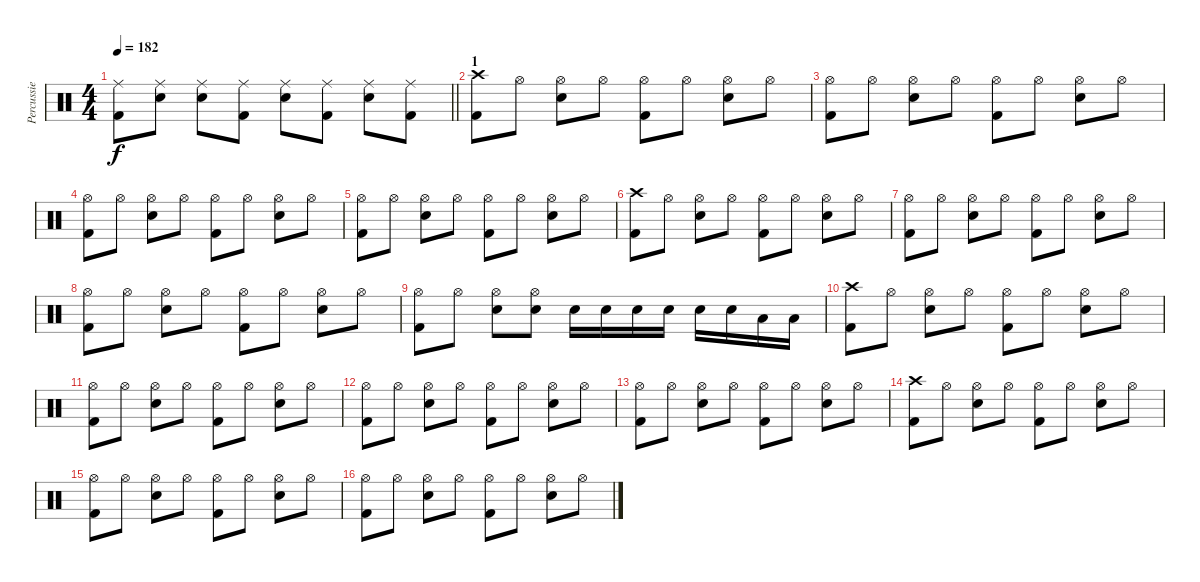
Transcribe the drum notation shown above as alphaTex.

\track ("Percussie" "Percussie") {instrument percussion}
\staff {score}
\articulation defaults
\ts (4 4)
\tempo 182
\clef neutral
\barLineRight lightlight
\ks c
("Ride (middle)" "Kick (hit) 2").8{dy f} ("Ride (middle)" "Snare (hit) 2").8 ("Ride (middle)" "Snare (hit) 2").8 ("Ride (middle)" "Kick (hit) 2").8 ("Ride (middle)" "Snare (hit) 2").8 ("Ride (middle)" "Kick (hit) 2").8 ("Ride (middle)" "Snare (hit) 2").8 ("Ride (middle)" "Kick (hit) 2").8 |
\section ("" "1")
("Crash high (hit)" "Kick (hit) 2").8 "Hi-Hat (open)".8 ("Hi-Hat (open)" "Snare (hit) 2").8 "Hi-Hat (open)".8 ("Hi-Hat (open)" "Kick (hit) 2").8 "Hi-Hat (open)".8 ("Hi-Hat (open)" "Snare (hit) 2").8 "Hi-Hat (open)".8 |
("Hi-Hat (open)" "Kick (hit) 2").8 "Hi-Hat (open)".8 ("Hi-Hat (open)" "Snare (hit) 2").8 "Hi-Hat (open)".8 ("Hi-Hat (open)" "Kick (hit) 2").8 "Hi-Hat (open)".8 ("Hi-Hat (open)" "Snare (hit) 2").8 "Hi-Hat (open)".8 |
("Hi-Hat (open)" "Kick (hit) 2").8 "Hi-Hat (open)".8 ("Hi-Hat (open)" "Snare (hit) 2").8 "Hi-Hat (open)".8 ("Hi-Hat (open)" "Kick (hit) 2").8 "Hi-Hat (open)".8 ("Hi-Hat (open)" "Snare (hit) 2").8 "Hi-Hat (open)".8 |
("Hi-Hat (open)" "Kick (hit) 2").8 "Hi-Hat (open)".8 ("Hi-Hat (open)" "Snare (hit) 2").8 "Hi-Hat (open)".8 ("Hi-Hat (open)" "Kick (hit) 2").8 "Hi-Hat (open)".8 ("Hi-Hat (open)" "Snare (hit) 2").8 "Hi-Hat (open)".8 |
("Crash high (hit)" "Kick (hit) 2").8 "Hi-Hat (open)".8 ("Hi-Hat (open)" "Snare (hit) 2").8 "Hi-Hat (open)".8 ("Hi-Hat (open)" "Kick (hit) 2").8 "Hi-Hat (open)".8 ("Hi-Hat (open)" "Snare (hit) 2").8 "Hi-Hat (open)".8 |
("Hi-Hat (open)" "Kick (hit) 2").8 "Hi-Hat (open)".8 ("Hi-Hat (open)" "Snare (hit) 2").8 "Hi-Hat (open)".8 ("Hi-Hat (open)" "Kick (hit) 2").8 "Hi-Hat (open)".8 ("Hi-Hat (open)" "Snare (hit) 2").8 "Hi-Hat (open)".8 |
("Hi-Hat (open)" "Kick (hit) 2").8 "Hi-Hat (open)".8 ("Hi-Hat (open)" "Snare (hit) 2").8 "Hi-Hat (open)".8 ("Hi-Hat (open)" "Kick (hit) 2").8 "Hi-Hat (open)".8 ("Hi-Hat (open)" "Snare (hit) 2").8 "Hi-Hat (open)".8 |
("Hi-Hat (open)" "Kick (hit) 2").8 "Hi-Hat (open)".8 ("Hi-Hat (open)" "Snare (hit) 2").8 ("Hi-Hat (open)" "Snare (hit) 2").8 "Snare (hit) 2".16 "Snare (hit) 2".16 "Snare (hit) 2".16 "Snare (hit) 2".16 "Snare (hit) 2".16 "Snare (hit) 2".16 "Low Tom (hit)".16 "Low Tom (hit)".16 |
("Crash high (hit)" "Kick (hit) 2").8 "Hi-Hat (open)".8 ("Hi-Hat (open)" "Snare (hit) 2").8 "Hi-Hat (open)".8 ("Hi-Hat (open)" "Kick (hit) 2").8 "Hi-Hat (open)".8 ("Hi-Hat (open)" "Snare (hit) 2").8 "Hi-Hat (open)".8 |
("Hi-Hat (open)" "Kick (hit) 2").8 "Hi-Hat (open)".8 ("Hi-Hat (open)" "Snare (hit) 2").8 "Hi-Hat (open)".8 ("Hi-Hat (open)" "Kick (hit) 2").8 "Hi-Hat (open)".8 ("Hi-Hat (open)" "Snare (hit) 2").8 "Hi-Hat (open)".8 |
("Hi-Hat (open)" "Kick (hit) 2").8 "Hi-Hat (open)".8 ("Hi-Hat (open)" "Snare (hit) 2").8 "Hi-Hat (open)".8 ("Hi-Hat (open)" "Kick (hit) 2").8 "Hi-Hat (open)".8 ("Hi-Hat (open)" "Snare (hit) 2").8 "Hi-Hat (open)".8 |
("Hi-Hat (open)" "Kick (hit) 2").8 "Hi-Hat (open)".8 ("Hi-Hat (open)" "Snare (hit) 2").8 "Hi-Hat (open)".8 ("Hi-Hat (open)" "Kick (hit) 2").8 "Hi-Hat (open)".8 ("Hi-Hat (open)" "Snare (hit) 2").8 "Hi-Hat (open)".8 |
("Crash high (hit)" "Kick (hit) 2").8 "Hi-Hat (open)".8 ("Hi-Hat (open)" "Snare (hit) 2").8 "Hi-Hat (open)".8 ("Hi-Hat (open)" "Kick (hit) 2").8 "Hi-Hat (open)".8 ("Hi-Hat (open)" "Snare (hit) 2").8 "Hi-Hat (open)".8 |
("Hi-Hat (open)" "Kick (hit) 2").8 "Hi-Hat (open)".8 ("Hi-Hat (open)" "Snare (hit) 2").8 "Hi-Hat (open)".8 ("Hi-Hat (open)" "Kick (hit) 2").8 "Hi-Hat (open)".8 ("Hi-Hat (open)" "Snare (hit) 2").8 "Hi-Hat (open)".8 |
("Hi-Hat (open)" "Kick (hit) 2").8 "Hi-Hat (open)".8 ("Hi-Hat (open)" "Snare (hit) 2").8 "Hi-Hat (open)".8 ("Hi-Hat (open)" "Kick (hit) 2").8 "Hi-Hat (open)".8 ("Hi-Hat (open)" "Snare (hit) 2").8 "Hi-Hat (open)".8
